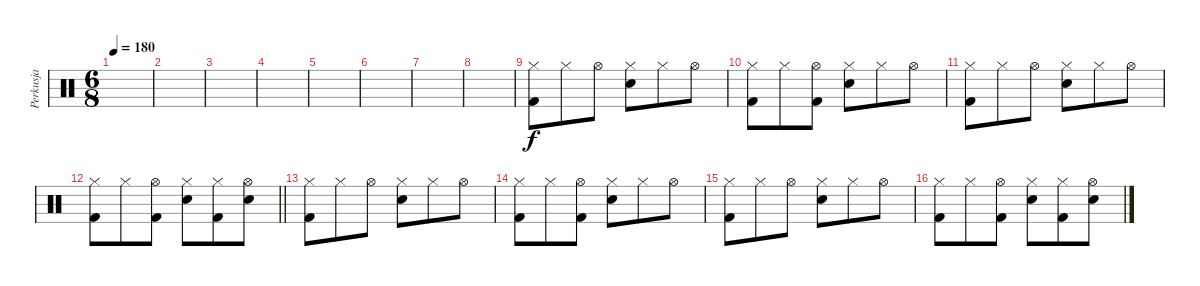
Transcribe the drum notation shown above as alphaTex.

\track ("Perkusja" "Perkusja") {instrument percussion}
\staff {score}
\articulation defaults
\ts (6 8)
\tempo 180
\clef neutral
\ks c
|
|
|
|
|
|
|
|
("Hi-Hat (closed)" "Kick (hit) 2").8 "Hi-Hat (closed)".8 "Hi-Hat (open)".8 ("Hi-Hat (closed)" "Snare (hit) 2").8 "Hi-Hat (closed)".8 "Hi-Hat (open)".8 |
("Hi-Hat (closed)" "Kick (hit) 2").8 "Hi-Hat (closed)".8 ("Hi-Hat (open)" "Kick (hit) 2").8 ("Hi-Hat (closed)" "Snare (hit) 2").8 "Hi-Hat (closed)".8 "Hi-Hat (open)".8 |
("Hi-Hat (closed)" "Kick (hit) 2").8 "Hi-Hat (closed)".8 "Hi-Hat (open)".8 ("Hi-Hat (closed)" "Snare (hit) 2").8 "Hi-Hat (closed)".8 "Hi-Hat (open)".8 |
\barLineRight lightlight
("Hi-Hat (closed)" "Kick (hit) 2").8 "Hi-Hat (closed)".8 ("Hi-Hat (open)" "Kick (hit) 2").8 ("Hi-Hat (closed)" "Snare (hit) 2").8 ("Hi-Hat (closed)" "Kick (hit) 2").8 ("Hi-Hat (open)" "Snare (hit) 2").8 |
("Hi-Hat (closed)" "Kick (hit) 2").8 "Hi-Hat (closed)".8 "Hi-Hat (open)".8 ("Hi-Hat (closed)" "Snare (hit) 2").8 "Hi-Hat (closed)".8 "Hi-Hat (open)".8 |
("Hi-Hat (closed)" "Kick (hit) 2").8 "Hi-Hat (closed)".8 ("Hi-Hat (open)" "Kick (hit) 2").8 ("Hi-Hat (closed)" "Snare (hit) 2").8 "Hi-Hat (closed)".8 "Hi-Hat (open)".8 |
("Hi-Hat (closed)" "Kick (hit) 2").8 "Hi-Hat (closed)".8 "Hi-Hat (open)".8 ("Hi-Hat (closed)" "Snare (hit) 2").8 "Hi-Hat (closed)".8 "Hi-Hat (open)".8 |
("Hi-Hat (closed)" "Kick (hit) 2").8 "Hi-Hat (closed)".8 ("Hi-Hat (open)" "Kick (hit) 2").8 ("Hi-Hat (closed)" "Snare (hit) 2").8 ("Hi-Hat (closed)" "Kick (hit) 2").8 ("Hi-Hat (open)" "Snare (hit) 2").8
